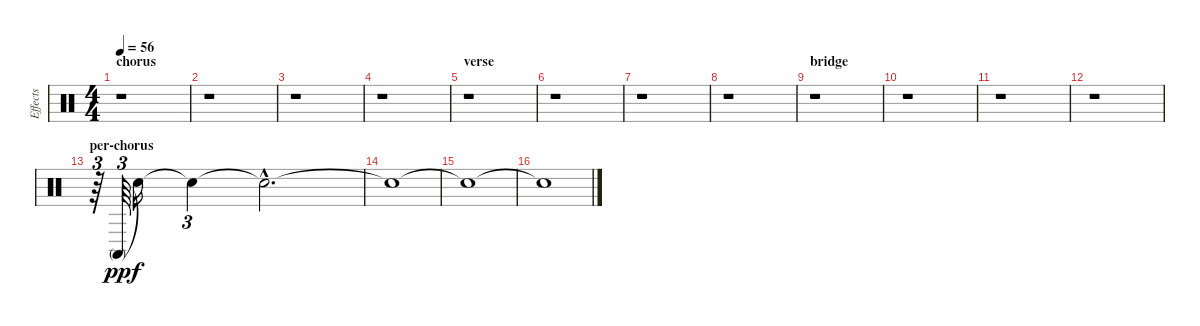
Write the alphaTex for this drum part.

\track ("Effects" "Effects") {instrument percussion}
\staff {score}
\articulation defaults
\ts (4 4)
\section ("" "chorus")
\tempo 56
\clef neutral
\ks c
r.1{dy f} |
r.1 |
r.1 |
r.1 |
\section ("" "verse")
r.1 |
r.1 |
r.1 |
r.1 |
\section ("" "bridge")
r.1 |
r.1 |
r.1 |
r.1 |
\section ("" "per-chorus")
r.64{tu (3 2)} "Conga high (mute)".64{tu (3 2) dy pp} "Snare (hit)"{t}.16{dy f} "Snare (hit)"{t}.4{tu (3 2)} "Snare (hit)"{hac t}.2{d} |
"Snare (hit)"{t}.1 |
"Snare (hit)"{t}.1 |
"Snare (hit)"{t}.1
